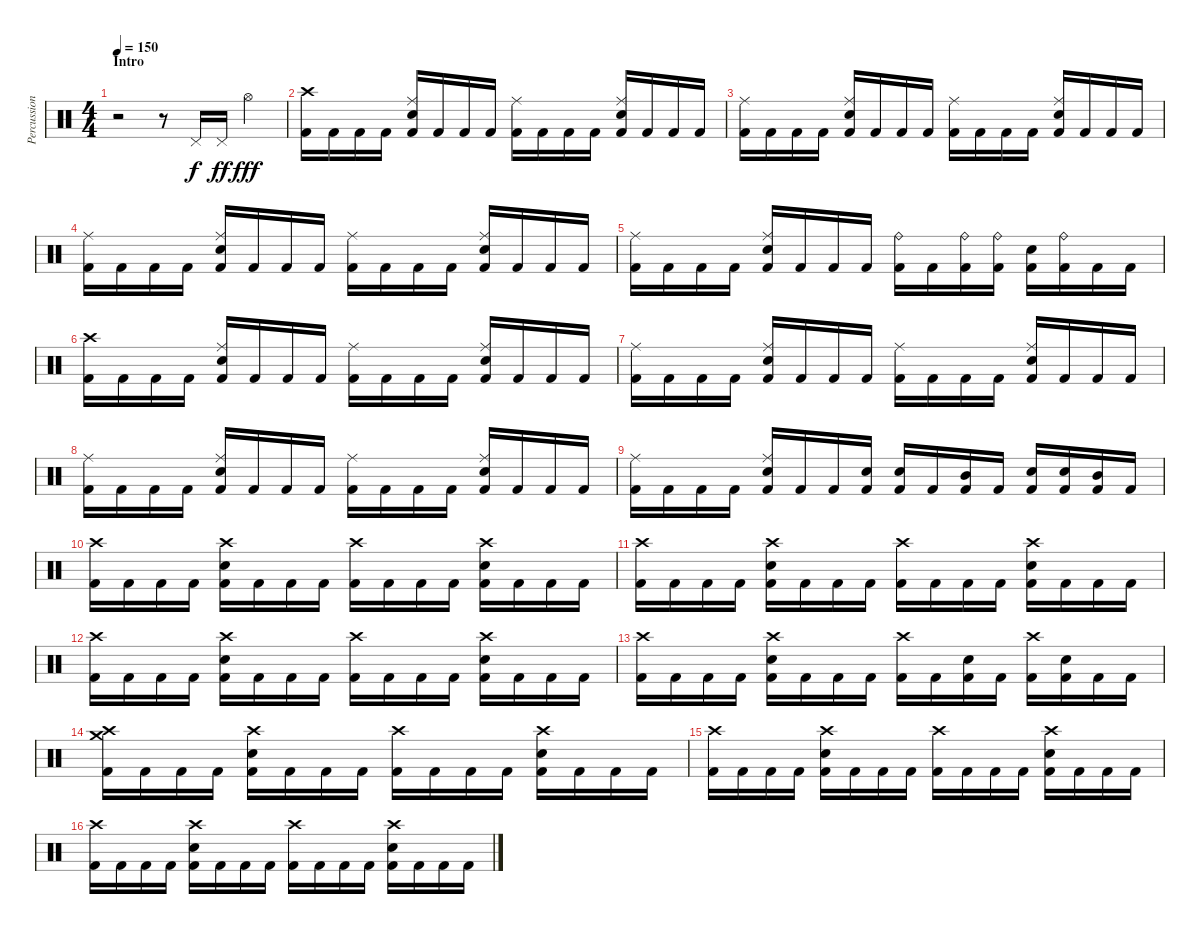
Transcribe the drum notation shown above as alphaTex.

\track ("Percussion" "Percussion") {instrument percussion}
\staff {score}
\articulation defaults
\ts (4 4)
\section ("" "Intro")
\tempo 150
\clef neutral
\ks c
r.2{dy f} r.8 "Pedal Hi-Hat (hit)".16 "Pedal Hi-Hat (hit)".16{dy ff} "Hi-Hat (open)".4{dy fff} |
("Crash high (hit)" "Kick (hit) 2").16 "Kick (hit) 2".16 "Kick (hit) 2".16 "Kick (hit) 2".16 ("Ride (middle)" "Snare (hit) 2" "Kick (hit) 2").16 "Kick (hit) 2".16 "Kick (hit) 2".16 "Kick (hit) 2".16 ("Ride (middle)" "Kick (hit) 2").16 "Kick (hit) 2".16 "Kick (hit) 2".16 "Kick (hit) 2".16 ("Ride (middle)" "Snare (hit) 2" "Kick (hit) 2").16 "Kick (hit) 2".16 "Kick (hit) 2".16 "Kick (hit) 2".16 |
("Ride (middle)" "Kick (hit) 2").16 "Kick (hit) 2".16 "Kick (hit) 2".16 "Kick (hit) 2".16 ("Ride (middle)" "Snare (hit) 2" "Kick (hit) 2").16 "Kick (hit) 2".16 "Kick (hit) 2".16 "Kick (hit) 2".16 ("Ride (middle)" "Kick (hit) 2").16 "Kick (hit) 2".16 "Kick (hit) 2".16 "Kick (hit) 2".16 ("Ride (middle)" "Snare (hit) 2" "Kick (hit) 2").16 "Kick (hit) 2".16 "Kick (hit) 2".16 "Kick (hit) 2".16 |
("Ride (middle)" "Kick (hit) 2").16 "Kick (hit) 2".16 "Kick (hit) 2".16 "Kick (hit) 2".16 ("Ride (middle)" "Snare (hit) 2" "Kick (hit) 2").16 "Kick (hit) 2".16 "Kick (hit) 2".16 "Kick (hit) 2".16 ("Ride (middle)" "Kick (hit) 2").16 "Kick (hit) 2".16 "Kick (hit) 2".16 "Kick (hit) 2".16 ("Ride (middle)" "Snare (hit) 2" "Kick (hit) 2").16 "Kick (hit) 2".16 "Kick (hit) 2".16 "Kick (hit) 2".16 |
("Ride (middle)" "Kick (hit) 2").16 "Kick (hit) 2".16 "Kick (hit) 2".16 "Kick (hit) 2".16 ("Ride (middle)" "Snare (hit) 2" "Kick (hit) 2").16 "Kick (hit) 2".16 "Kick (hit) 2".16 "Kick (hit) 2".16 ("Ride (bell)" "Kick (hit) 2").16 "Kick (hit) 2".16 ("Ride (bell)" "Kick (hit) 2").16 ("Ride (bell)" "Kick (hit) 2").16 ("Snare (hit) 2" "Kick (hit) 2").16 ("Ride (bell)" "Kick (hit) 2").16 "Kick (hit) 2".16 "Kick (hit) 2".16 |
("Crash high (hit)" "Kick (hit) 2").16 "Kick (hit) 2".16 "Kick (hit) 2".16 "Kick (hit) 2".16 ("Ride (middle)" "Snare (hit) 2" "Kick (hit) 2").16 "Kick (hit) 2".16 "Kick (hit) 2".16 "Kick (hit) 2".16 ("Ride (middle)" "Kick (hit) 2").16 "Kick (hit) 2".16 "Kick (hit) 2".16 "Kick (hit) 2".16 ("Ride (middle)" "Snare (hit) 2" "Kick (hit) 2").16 "Kick (hit) 2".16 "Kick (hit) 2".16 "Kick (hit) 2".16 |
("Ride (middle)" "Kick (hit) 2").16 "Kick (hit) 2".16 "Kick (hit) 2".16 "Kick (hit) 2".16 ("Ride (middle)" "Snare (hit) 2" "Kick (hit) 2").16 "Kick (hit) 2".16 "Kick (hit) 2".16 "Kick (hit) 2".16 ("Ride (middle)" "Kick (hit) 2").16 "Kick (hit) 2".16 "Kick (hit) 2".16 "Kick (hit) 2".16 ("Ride (middle)" "Snare (hit) 2" "Kick (hit) 2").16 "Kick (hit) 2".16 "Kick (hit) 2".16 "Kick (hit) 2".16 |
("Ride (middle)" "Kick (hit) 2").16 "Kick (hit) 2".16 "Kick (hit) 2".16 "Kick (hit) 2".16 ("Ride (middle)" "Snare (hit) 2" "Kick (hit) 2").16 "Kick (hit) 2".16 "Kick (hit) 2".16 "Kick (hit) 2".16 ("Ride (middle)" "Kick (hit) 2").16 "Kick (hit) 2".16 "Kick (hit) 2".16 "Kick (hit) 2".16 ("Ride (middle)" "Snare (hit) 2" "Kick (hit) 2").16 "Kick (hit) 2".16 "Kick (hit) 2".16 "Kick (hit) 2".16 |
("Ride (middle)" "Kick (hit) 2").16 "Kick (hit) 2".16 "Kick (hit) 2".16 "Kick (hit) 2".16 ("Ride (middle)" "Snare (hit) 2" "Kick (hit) 2").16 "Kick (hit) 2".16 "Kick (hit) 2".16 ("Snare (hit) 2" "Kick (hit) 2").16 ("Snare (hit) 2" "Kick (hit) 2").16 "Kick (hit) 2".16 ("Mid Tom (hit)" "Kick (hit) 2").16 "Kick (hit) 2".16 ("Snare (hit) 2" "Kick (hit) 2").16 ("Snare (hit) 2" "Kick (hit) 2").16 ("Mid Tom (hit)" "Kick (hit) 2").16 "Kick (hit) 2".16 |
("Crash high (hit)" "Kick (hit) 2").16 "Kick (hit) 2".16 "Kick (hit) 2".16 "Kick (hit) 2".16 ("Crash high (hit)" "Snare (hit) 2" "Kick (hit) 2").16 "Kick (hit) 2".16 "Kick (hit) 2".16 "Kick (hit) 2".16 ("Crash high (hit)" "Kick (hit) 2").16 "Kick (hit) 2".16 "Kick (hit) 2".16 "Kick (hit) 2".16 ("Crash high (hit)" "Snare (hit) 2" "Kick (hit) 2").16 "Kick (hit) 2".16 "Kick (hit) 2".16 "Kick (hit) 2".16 |
("Crash high (hit)" "Kick (hit) 2").16 "Kick (hit) 2".16 "Kick (hit) 2".16 "Kick (hit) 2".16 ("Crash high (hit)" "Snare (hit) 2" "Kick (hit) 2").16 "Kick (hit) 2".16 "Kick (hit) 2".16 "Kick (hit) 2".16 ("Crash high (hit)" "Kick (hit) 2").16 "Kick (hit) 2".16 "Kick (hit) 2".16 "Kick (hit) 2".16 ("Crash high (hit)" "Snare (hit) 2" "Kick (hit) 2").16 "Kick (hit) 2".16 "Kick (hit) 2".16 "Kick (hit) 2".16 |
("Crash high (hit)" "Kick (hit) 2").16 "Kick (hit) 2".16 "Kick (hit) 2".16 "Kick (hit) 2".16 ("Crash high (hit)" "Snare (hit) 2" "Kick (hit) 2").16 "Kick (hit) 2".16 "Kick (hit) 2".16 "Kick (hit) 2".16 ("Crash high (hit)" "Kick (hit) 2").16 "Kick (hit) 2".16 "Kick (hit) 2".16 "Kick (hit) 2".16 ("Crash high (hit)" "Snare (hit) 2" "Kick (hit) 2").16 "Kick (hit) 2".16 "Kick (hit) 2".16 "Kick (hit) 2".16 |
("Crash high (hit)" "Kick (hit) 2").16 "Kick (hit) 2".16 "Kick (hit) 2".16 "Kick (hit) 2".16 ("Crash high (hit)" "Snare (hit) 2" "Kick (hit) 2").16 "Kick (hit) 2".16 "Kick (hit) 2".16 "Kick (hit) 2".16 ("Crash high (hit)" "Kick (hit) 2").16 "Kick (hit) 2".16 ("Snare (hit) 2" "Kick (hit) 2").16 "Kick (hit) 2".16 ("Crash high (hit)" "Kick (hit) 2").16 ("Snare (hit) 2" "Kick (hit) 2").16 "Kick (hit) 2".16 "Kick (hit) 2".16 |
("Crash high (hit)" "Crash medium (hit)" "Kick (hit) 2").16 "Kick (hit) 2".16 "Kick (hit) 2".16 "Kick (hit) 2".16 ("Crash high (hit)" "Snare (hit) 2" "Kick (hit) 2").16 "Kick (hit) 2".16 "Kick (hit) 2".16 "Kick (hit) 2".16 ("Crash high (hit)" "Kick (hit) 2").16 "Kick (hit) 2".16 "Kick (hit) 2".16 "Kick (hit) 2".16 ("Crash high (hit)" "Snare (hit) 2" "Kick (hit) 2").16 "Kick (hit) 2".16 "Kick (hit) 2".16 "Kick (hit) 2".16 |
("Crash high (hit)" "Kick (hit) 2").16 "Kick (hit) 2".16 "Kick (hit) 2".16 "Kick (hit) 2".16 ("Crash high (hit)" "Snare (hit) 2" "Kick (hit) 2").16 "Kick (hit) 2".16 "Kick (hit) 2".16 "Kick (hit) 2".16 ("Crash high (hit)" "Kick (hit) 2").16 "Kick (hit) 2".16 "Kick (hit) 2".16 "Kick (hit) 2".16 ("Crash high (hit)" "Snare (hit) 2" "Kick (hit) 2").16 "Kick (hit) 2".16 "Kick (hit) 2".16 "Kick (hit) 2".16 |
("Crash high (hit)" "Kick (hit) 2").16 "Kick (hit) 2".16 "Kick (hit) 2".16 "Kick (hit) 2".16 ("Crash high (hit)" "Snare (hit) 2" "Kick (hit) 2").16 "Kick (hit) 2".16 "Kick (hit) 2".16 "Kick (hit) 2".16 ("Crash high (hit)" "Kick (hit) 2").16 "Kick (hit) 2".16 "Kick (hit) 2".16 "Kick (hit) 2".16 ("Crash high (hit)" "Snare (hit) 2" "Kick (hit) 2").16 "Kick (hit) 2".16 "Kick (hit) 2".16 "Kick (hit) 2".16
